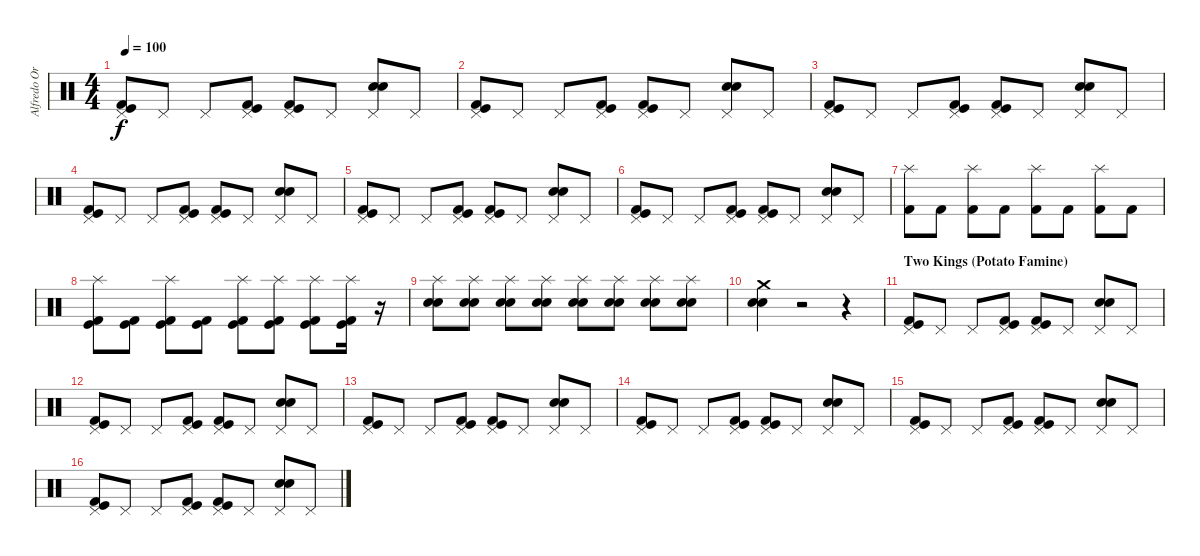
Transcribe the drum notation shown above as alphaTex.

\track ("Alfredo Ortiz (Drums)" "Alfredo Or") {instrument percussion}
\staff {score}
\articulation defaults
\ts (4 4)
\tempo 100
\clef neutral
\ks c
("Kick (hit) 2" "Kick (hit)" "Pedal Hi-Hat (hit)").8{dy f} "Pedal Hi-Hat (hit)".8 "Pedal Hi-Hat (hit)".8 ("Kick (hit) 2" "Kick (hit)" "Pedal Hi-Hat (hit)").8 ("Kick (hit) 2" "Kick (hit)" "Pedal Hi-Hat (hit)").8 "Pedal Hi-Hat (hit)".8 ("Snare (hit) 2" "Electric Snare (hit)" "Pedal Hi-Hat (hit)").8 "Pedal Hi-Hat (hit)".8 |
("Kick (hit) 2" "Kick (hit)" "Pedal Hi-Hat (hit)").8 "Pedal Hi-Hat (hit)".8 "Pedal Hi-Hat (hit)".8 ("Kick (hit) 2" "Kick (hit)" "Pedal Hi-Hat (hit)").8 ("Kick (hit) 2" "Kick (hit)" "Pedal Hi-Hat (hit)").8 "Pedal Hi-Hat (hit)".8 ("Snare (hit) 2" "Electric Snare (hit)" "Pedal Hi-Hat (hit)").8 "Pedal Hi-Hat (hit)".8 |
("Kick (hit) 2" "Kick (hit)" "Pedal Hi-Hat (hit)").8 "Pedal Hi-Hat (hit)".8 "Pedal Hi-Hat (hit)".8 ("Kick (hit) 2" "Kick (hit)" "Pedal Hi-Hat (hit)").8 ("Kick (hit) 2" "Kick (hit)" "Pedal Hi-Hat (hit)").8 "Pedal Hi-Hat (hit)".8 ("Snare (hit) 2" "Electric Snare (hit)" "Pedal Hi-Hat (hit)").8 "Pedal Hi-Hat (hit)".8 |
("Kick (hit) 2" "Kick (hit)" "Pedal Hi-Hat (hit)").8 "Pedal Hi-Hat (hit)".8 "Pedal Hi-Hat (hit)".8 ("Kick (hit) 2" "Kick (hit)" "Pedal Hi-Hat (hit)").8 ("Kick (hit) 2" "Kick (hit)" "Pedal Hi-Hat (hit)").8 "Pedal Hi-Hat (hit)".8 ("Snare (hit) 2" "Electric Snare (hit)" "Pedal Hi-Hat (hit)").8 "Pedal Hi-Hat (hit)".8 |
("Kick (hit) 2" "Kick (hit)" "Pedal Hi-Hat (hit)").8 "Pedal Hi-Hat (hit)".8 "Pedal Hi-Hat (hit)".8 ("Kick (hit) 2" "Kick (hit)" "Pedal Hi-Hat (hit)").8 ("Kick (hit) 2" "Kick (hit)" "Pedal Hi-Hat (hit)").8 "Pedal Hi-Hat (hit)".8 ("Snare (hit) 2" "Electric Snare (hit)" "Pedal Hi-Hat (hit)").8 "Pedal Hi-Hat (hit)".8 |
("Kick (hit) 2" "Kick (hit)" "Pedal Hi-Hat (hit)").8 "Pedal Hi-Hat (hit)".8 "Pedal Hi-Hat (hit)".8 ("Kick (hit) 2" "Kick (hit)" "Pedal Hi-Hat (hit)").8 ("Kick (hit) 2" "Kick (hit)" "Pedal Hi-Hat (hit)").8 "Pedal Hi-Hat (hit)".8 ("Snare (hit) 2" "Electric Snare (hit)" "Pedal Hi-Hat (hit)").8 "Pedal Hi-Hat (hit)".8 |
("Kick (hit) 2" "Splash (hit)").8 "Kick (hit) 2".8 ("Kick (hit) 2" "Splash (hit)").8 "Kick (hit) 2".8 ("Kick (hit) 2" "Splash (hit)").8 "Kick (hit) 2".8 ("Kick (hit) 2" "Splash (hit)").8 "Kick (hit) 2".8 |
("Kick (hit) 2" "Kick (hit)" "Splash (hit)").8 ("Kick (hit) 2" "Kick (hit)").8 ("Kick (hit) 2" "Kick (hit)" "Splash (hit)").8 ("Kick (hit) 2" "Kick (hit)").8 ("Kick (hit) 2" "Kick (hit)" "Splash (hit)").8 ("Kick (hit) 2" "Kick (hit)" "Splash (hit)").8 ("Kick (hit) 2" "Kick (hit)" "Splash (hit)").8 ("Kick (hit) 2" "Kick (hit)" "Splash (hit)").16 r.16{volume 8} |
("Snare (hit) 2" "Electric Snare (hit)" "Splash (hit)").8{volume 11} ("Snare (hit) 2" "Electric Snare (hit)" "Splash (hit)").8 ("Snare (hit) 2" "Electric Snare (hit)" "Splash (hit)").8 ("Snare (hit) 2" "Electric Snare (hit)" "Splash (hit)").8 ("Snare (hit) 2" "Electric Snare (hit)" "Splash (hit)").8 ("Snare (hit) 2" "Electric Snare (hit)" "Splash (hit)").8 ("Snare (hit) 2" "Electric Snare (hit)" "Splash (hit)").8 ("Snare (hit) 2" "Electric Snare (hit)" "Splash (hit)").8 |
("Snare (hit) 2" "Electric Snare (hit)" "Crash medium (hit)").4 r.2 r.4 |
\section ("" "Two Kings (Potato Famine)")
("Kick (hit) 2" "Kick (hit)" "Pedal Hi-Hat (hit)").8 "Pedal Hi-Hat (hit)".8 "Pedal Hi-Hat (hit)".8 ("Kick (hit) 2" "Kick (hit)" "Pedal Hi-Hat (hit)").8 ("Kick (hit) 2" "Kick (hit)" "Pedal Hi-Hat (hit)").8 "Pedal Hi-Hat (hit)".8 ("Snare (hit) 2" "Electric Snare (hit)" "Pedal Hi-Hat (hit)").8 "Pedal Hi-Hat (hit)".8 |
("Kick (hit) 2" "Kick (hit)" "Pedal Hi-Hat (hit)").8 "Pedal Hi-Hat (hit)".8 "Pedal Hi-Hat (hit)".8 ("Kick (hit) 2" "Kick (hit)" "Pedal Hi-Hat (hit)").8 ("Kick (hit) 2" "Kick (hit)" "Pedal Hi-Hat (hit)").8 "Pedal Hi-Hat (hit)".8 ("Snare (hit) 2" "Electric Snare (hit)" "Pedal Hi-Hat (hit)").8 "Pedal Hi-Hat (hit)".8 |
("Kick (hit) 2" "Kick (hit)" "Pedal Hi-Hat (hit)").8 "Pedal Hi-Hat (hit)".8 "Pedal Hi-Hat (hit)".8 ("Kick (hit) 2" "Kick (hit)" "Pedal Hi-Hat (hit)").8 ("Kick (hit) 2" "Kick (hit)" "Pedal Hi-Hat (hit)").8 "Pedal Hi-Hat (hit)".8 ("Snare (hit) 2" "Electric Snare (hit)" "Pedal Hi-Hat (hit)").8 "Pedal Hi-Hat (hit)".8 |
("Kick (hit) 2" "Kick (hit)" "Pedal Hi-Hat (hit)").8 "Pedal Hi-Hat (hit)".8 "Pedal Hi-Hat (hit)".8 ("Kick (hit) 2" "Kick (hit)" "Pedal Hi-Hat (hit)").8 ("Kick (hit) 2" "Kick (hit)" "Pedal Hi-Hat (hit)").8 "Pedal Hi-Hat (hit)".8 ("Snare (hit) 2" "Electric Snare (hit)" "Pedal Hi-Hat (hit)").8 "Pedal Hi-Hat (hit)".8 |
("Kick (hit) 2" "Kick (hit)" "Pedal Hi-Hat (hit)").8 "Pedal Hi-Hat (hit)".8 "Pedal Hi-Hat (hit)".8 ("Kick (hit) 2" "Kick (hit)" "Pedal Hi-Hat (hit)").8 ("Kick (hit) 2" "Kick (hit)" "Pedal Hi-Hat (hit)").8 "Pedal Hi-Hat (hit)".8 ("Snare (hit) 2" "Electric Snare (hit)" "Pedal Hi-Hat (hit)").8 "Pedal Hi-Hat (hit)".8 |
("Kick (hit) 2" "Kick (hit)" "Pedal Hi-Hat (hit)").8 "Pedal Hi-Hat (hit)".8 "Pedal Hi-Hat (hit)".8 ("Kick (hit) 2" "Kick (hit)" "Pedal Hi-Hat (hit)").8 ("Kick (hit) 2" "Kick (hit)" "Pedal Hi-Hat (hit)").8 "Pedal Hi-Hat (hit)".8 ("Snare (hit) 2" "Electric Snare (hit)" "Pedal Hi-Hat (hit)").8 "Pedal Hi-Hat (hit)".8
